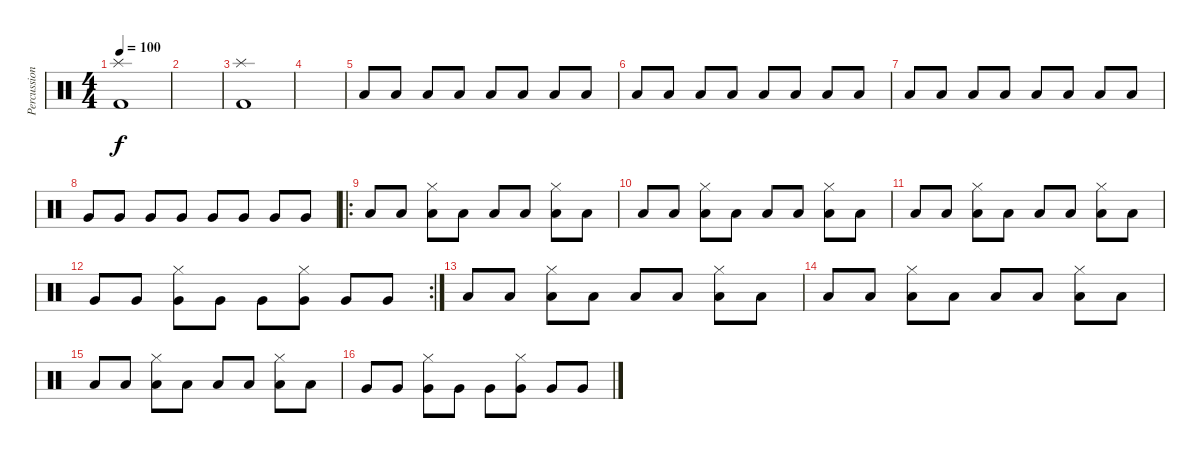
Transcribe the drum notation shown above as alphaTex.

\track ("Percussion" "Percussion") {instrument percussion}
\staff {score}
\articulation defaults
\ts (4 4)
\tempo 100
\clef neutral
\ks c
("Splash (hit)" "Kick (hit) 2").1{dy f} |
|
("Splash (hit)" "Kick (hit) 2").1 |
|
"Low Floor Tom (hit)".8 "Low Floor Tom (hit)".8 "Low Floor Tom (hit)".8 "Low Floor Tom (hit)".8 "Low Floor Tom (hit)".8 "Low Floor Tom (hit)".8 "Low Floor Tom (hit)".8 "Low Floor Tom (hit)".8 |
"Low Tom (hit)".8 "Low Tom (hit)".8 "Low Tom (hit)".8 "Low Tom (hit)".8 "Low Tom (hit)".8 "Low Tom (hit)".8 "Low Tom (hit)".8 "Low Tom (hit)".8 |
"Low Floor Tom (hit)".8 "Low Floor Tom (hit)".8 "Low Floor Tom (hit)".8 "Low Floor Tom (hit)".8 "Low Floor Tom (hit)".8 "Low Floor Tom (hit)".8 "Low Floor Tom (hit)".8 "Low Floor Tom (hit)".8 |
"Very Low Tom (hit)".8 "Very Low Tom (hit)".8 "Very Low Tom (hit)".8 "Very Low Tom (hit)".8 "Very Low Tom (hit)".8 "Very Low Tom (hit)".8 "Very Low Tom (hit)".8 "Very Low Tom (hit)".8 |
\ro "Low Floor Tom (hit)".8 "Low Floor Tom (hit)".8
("Hi-Hat (closed)" "Low Floor Tom (hit)").8 "Low Floor Tom (hit)".8 "Low Floor Tom (hit)".8 "Low Floor Tom (hit)".8 ("Hi-Hat (closed)" "Low Floor Tom (hit)").8 "Low Floor Tom (hit)".8 |
"Low Tom (hit)".8 "Low Tom (hit)".8 ("Hi-Hat (closed)" "Low Tom (hit)").8 "Low Tom (hit)".8 "Low Tom (hit)".8 "Low Tom (hit)".8 ("Hi-Hat (closed)" "Low Tom (hit)").8 "Low Tom (hit)".8 |
"Low Floor Tom (hit)".8 "Low Floor Tom (hit)".8 ("Hi-Hat (closed)" "Low Floor Tom (hit)").8 "Low Floor Tom (hit)".8 "Low Floor Tom (hit)".8 "Low Floor Tom (hit)".8 ("Hi-Hat (closed)" "Low Floor Tom (hit)").8 "Low Floor Tom (hit)".8 |
\rc 2 "Very Low Tom (hit)".8 "Very Low Tom (hit)".8
("Hi-Hat (closed)" "Very Low Tom (hit)").8 "Very Low Tom (hit)".8 "Very Low Tom (hit)".8 ("Hi-Hat (closed)" "Very Low Tom (hit)").8 "Very Low Tom (hit)".8 "Very Low Tom (hit)".8 |
"Low Floor Tom (hit)".8 "Low Floor Tom (hit)".8 ("Hi-Hat (closed)" "Low Floor Tom (hit)").8 "Low Floor Tom (hit)".8 "Low Floor Tom (hit)".8 "Low Floor Tom (hit)".8 ("Hi-Hat (closed)" "Low Floor Tom (hit)").8 "Low Floor Tom (hit)".8 |
"Low Tom (hit)".8 "Low Tom (hit)".8 ("Hi-Hat (closed)" "Low Tom (hit)").8 "Low Tom (hit)".8 "Low Tom (hit)".8 "Low Tom (hit)".8 ("Hi-Hat (closed)" "Low Tom (hit)").8 "Low Tom (hit)".8 |
"Low Floor Tom (hit)".8 "Low Floor Tom (hit)".8 ("Hi-Hat (closed)" "Low Floor Tom (hit)").8 "Low Floor Tom (hit)".8 "Low Floor Tom (hit)".8 "Low Floor Tom (hit)".8 ("Hi-Hat (closed)" "Low Floor Tom (hit)").8 "Low Floor Tom (hit)".8 |
"Very Low Tom (hit)".8 "Very Low Tom (hit)".8 ("Hi-Hat (closed)" "Very Low Tom (hit)").8 "Very Low Tom (hit)".8 "Very Low Tom (hit)".8 ("Hi-Hat (closed)" "Very Low Tom (hit)").8 "Very Low Tom (hit)".8 "Very Low Tom (hit)".8
